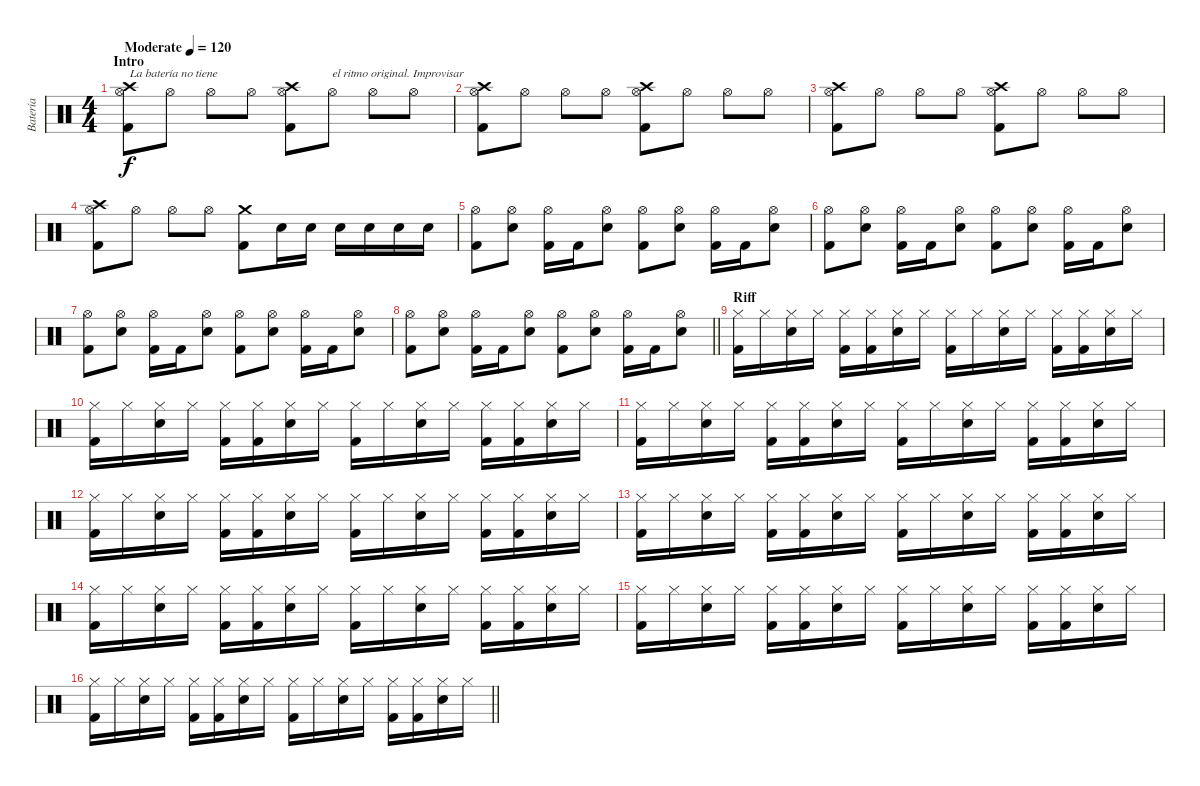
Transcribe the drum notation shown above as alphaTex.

\track ("Batería" "Batería") {instrument percussion}
\staff {score}
\articulation defaults
\ts (4 4)
\section ("" "Intro")
\tempo (120 "Moderate")
\clef neutral
\ks c
("Hi-Hat (open)" "Kick (hit) 2" "Crash high (hit)").8{txt "La batería no tiene" dy f} "Hi-Hat (open)".8 "Hi-Hat (open)".8 "Hi-Hat (open)".8 ("Hi-Hat (open)" "Kick (hit) 2" "Crash high (hit)").8 "Hi-Hat (open)".8{txt "el ritmo original. Improvisar"} "Hi-Hat (open)".8 "Hi-Hat (open)".8 |
("Hi-Hat (open)" "Kick (hit) 2" "Crash high (hit)").8 "Hi-Hat (open)".8 "Hi-Hat (open)".8 "Hi-Hat (open)".8 ("Hi-Hat (open)" "Kick (hit) 2" "Crash high (hit)").8 "Hi-Hat (open)".8 "Hi-Hat (open)".8 "Hi-Hat (open)".8 |
("Hi-Hat (open)" "Kick (hit) 2" "Crash high (hit)").8 "Hi-Hat (open)".8 "Hi-Hat (open)".8 "Hi-Hat (open)".8 ("Hi-Hat (open)" "Kick (hit) 2" "Crash high (hit)").8 "Hi-Hat (open)".8 "Hi-Hat (open)".8 "Hi-Hat (open)".8 |
("Hi-Hat (open)" "Kick (hit) 2" "Crash high (hit)").8 "Hi-Hat (open)".8 "Hi-Hat (open)".8 "Hi-Hat (open)".8 ("Kick (hit) 2" "Crash medium (hit)").8 "Snare (hit) 2".16 "Snare (hit) 2".16 "Snare (hit) 2".16 "Snare (hit) 2".16 "Snare (hit) 2".16 "Snare (hit) 2".16 |
("Hi-Hat (open)" "Kick (hit) 2").8 ("Hi-Hat (open)" "Snare (hit) 2").8 ("Hi-Hat (open)" "Kick (hit) 2").16 "Kick (hit) 2".16 ("Hi-Hat (open)" "Snare (hit) 2").8 ("Hi-Hat (open)" "Kick (hit) 2").8 ("Hi-Hat (open)" "Snare (hit) 2").8 ("Hi-Hat (open)" "Kick (hit) 2").16 "Kick (hit) 2".16 ("Hi-Hat (open)" "Snare (hit) 2").8 |
("Hi-Hat (open)" "Kick (hit) 2").8 ("Hi-Hat (open)" "Snare (hit) 2").8 ("Hi-Hat (open)" "Kick (hit) 2").16 "Kick (hit) 2".16 ("Hi-Hat (open)" "Snare (hit) 2").8 ("Hi-Hat (open)" "Kick (hit) 2").8 ("Hi-Hat (open)" "Snare (hit) 2").8 ("Hi-Hat (open)" "Kick (hit) 2").16 "Kick (hit) 2".16 ("Hi-Hat (open)" "Snare (hit) 2").8 |
("Hi-Hat (open)" "Kick (hit) 2").8 ("Hi-Hat (open)" "Snare (hit) 2").8 ("Hi-Hat (open)" "Kick (hit) 2").16 "Kick (hit) 2".16 ("Hi-Hat (open)" "Snare (hit) 2").8 ("Hi-Hat (open)" "Kick (hit) 2").8 ("Hi-Hat (open)" "Snare (hit) 2").8 ("Hi-Hat (open)" "Kick (hit) 2").16 "Kick (hit) 2".16 ("Hi-Hat (open)" "Snare (hit) 2").8 |
\barLineRight lightlight
("Hi-Hat (open)" "Kick (hit) 2").8 ("Hi-Hat (open)" "Snare (hit) 2").8 ("Hi-Hat (open)" "Kick (hit) 2").16 "Kick (hit) 2".16 ("Hi-Hat (open)" "Snare (hit) 2").8 ("Hi-Hat (open)" "Kick (hit) 2").8 ("Hi-Hat (open)" "Snare (hit) 2").8 ("Hi-Hat (open)" "Kick (hit) 2").16 "Kick (hit) 2".16 ("Hi-Hat (open)" "Snare (hit) 2").8 |
\section ("" "Riff")
("Hi-Hat (closed)" "Kick (hit) 2").16 "Hi-Hat (closed)".16 ("Hi-Hat (closed)" "Snare (hit) 2").16 "Hi-Hat (closed)".16 ("Hi-Hat (closed)" "Kick (hit) 2").16 ("Hi-Hat (closed)" "Kick (hit) 2").16 ("Hi-Hat (closed)" "Snare (hit) 2").16 "Hi-Hat (closed)".16 ("Hi-Hat (closed)" "Kick (hit) 2").16 "Hi-Hat (closed)".16 ("Hi-Hat (closed)" "Snare (hit) 2").16 "Hi-Hat (closed)".16 ("Hi-Hat (closed)" "Kick (hit) 2").16 ("Hi-Hat (closed)" "Kick (hit) 2").16 ("Hi-Hat (closed)" "Snare (hit) 2").16 "Hi-Hat (closed)".16 |
("Hi-Hat (closed)" "Kick (hit) 2").16 "Hi-Hat (closed)".16 ("Hi-Hat (closed)" "Snare (hit) 2").16 "Hi-Hat (closed)".16 ("Hi-Hat (closed)" "Kick (hit) 2").16 ("Hi-Hat (closed)" "Kick (hit) 2").16 ("Hi-Hat (closed)" "Snare (hit) 2").16 "Hi-Hat (closed)".16 ("Hi-Hat (closed)" "Kick (hit) 2").16 "Hi-Hat (closed)".16 ("Hi-Hat (closed)" "Snare (hit) 2").16 "Hi-Hat (closed)".16 ("Hi-Hat (closed)" "Kick (hit) 2").16 ("Hi-Hat (closed)" "Kick (hit) 2").16 ("Hi-Hat (closed)" "Snare (hit) 2").16 "Hi-Hat (closed)".16 |
("Hi-Hat (closed)" "Kick (hit) 2").16 "Hi-Hat (closed)".16 ("Hi-Hat (closed)" "Snare (hit) 2").16 "Hi-Hat (closed)".16 ("Hi-Hat (closed)" "Kick (hit) 2").16 ("Hi-Hat (closed)" "Kick (hit) 2").16 ("Hi-Hat (closed)" "Snare (hit) 2").16 "Hi-Hat (closed)".16 ("Hi-Hat (closed)" "Kick (hit) 2").16 "Hi-Hat (closed)".16 ("Hi-Hat (closed)" "Snare (hit) 2").16 "Hi-Hat (closed)".16 ("Hi-Hat (closed)" "Kick (hit) 2").16 ("Hi-Hat (closed)" "Kick (hit) 2").16 ("Hi-Hat (closed)" "Snare (hit) 2").16 "Hi-Hat (closed)".16 |
("Hi-Hat (closed)" "Kick (hit) 2").16 "Hi-Hat (closed)".16 ("Hi-Hat (closed)" "Snare (hit) 2").16 "Hi-Hat (closed)".16 ("Hi-Hat (closed)" "Kick (hit) 2").16 ("Hi-Hat (closed)" "Kick (hit) 2").16 ("Hi-Hat (closed)" "Snare (hit) 2").16 "Hi-Hat (closed)".16 ("Hi-Hat (closed)" "Kick (hit) 2").16 "Hi-Hat (closed)".16 ("Hi-Hat (closed)" "Snare (hit) 2").16 "Hi-Hat (closed)".16 ("Hi-Hat (closed)" "Kick (hit) 2").16 ("Hi-Hat (closed)" "Kick (hit) 2").16 ("Hi-Hat (closed)" "Snare (hit) 2").16 "Hi-Hat (closed)".16 |
("Hi-Hat (closed)" "Kick (hit) 2").16 "Hi-Hat (closed)".16 ("Hi-Hat (closed)" "Snare (hit) 2").16 "Hi-Hat (closed)".16 ("Hi-Hat (closed)" "Kick (hit) 2").16 ("Hi-Hat (closed)" "Kick (hit) 2").16 ("Hi-Hat (closed)" "Snare (hit) 2").16 "Hi-Hat (closed)".16 ("Hi-Hat (closed)" "Kick (hit) 2").16 "Hi-Hat (closed)".16 ("Hi-Hat (closed)" "Snare (hit) 2").16 "Hi-Hat (closed)".16 ("Hi-Hat (closed)" "Kick (hit) 2").16 ("Hi-Hat (closed)" "Kick (hit) 2").16 ("Hi-Hat (closed)" "Snare (hit) 2").16 "Hi-Hat (closed)".16 |
("Hi-Hat (closed)" "Kick (hit) 2").16 "Hi-Hat (closed)".16 ("Hi-Hat (closed)" "Snare (hit) 2").16 "Hi-Hat (closed)".16 ("Hi-Hat (closed)" "Kick (hit) 2").16 ("Hi-Hat (closed)" "Kick (hit) 2").16 ("Hi-Hat (closed)" "Snare (hit) 2").16 "Hi-Hat (closed)".16 ("Hi-Hat (closed)" "Kick (hit) 2").16 "Hi-Hat (closed)".16 ("Hi-Hat (closed)" "Snare (hit) 2").16 "Hi-Hat (closed)".16 ("Hi-Hat (closed)" "Kick (hit) 2").16 ("Hi-Hat (closed)" "Kick (hit) 2").16 ("Hi-Hat (closed)" "Snare (hit) 2").16 "Hi-Hat (closed)".16 |
("Hi-Hat (closed)" "Kick (hit) 2").16 "Hi-Hat (closed)".16 ("Hi-Hat (closed)" "Snare (hit) 2").16 "Hi-Hat (closed)".16 ("Hi-Hat (closed)" "Kick (hit) 2").16 ("Hi-Hat (closed)" "Kick (hit) 2").16 ("Hi-Hat (closed)" "Snare (hit) 2").16 "Hi-Hat (closed)".16 ("Hi-Hat (closed)" "Kick (hit) 2").16 "Hi-Hat (closed)".16 ("Hi-Hat (closed)" "Snare (hit) 2").16 "Hi-Hat (closed)".16 ("Hi-Hat (closed)" "Kick (hit) 2").16 ("Hi-Hat (closed)" "Kick (hit) 2").16 ("Hi-Hat (closed)" "Snare (hit) 2").16 "Hi-Hat (closed)".16 |
\barLineRight lightlight
("Hi-Hat (closed)" "Kick (hit) 2").16 "Hi-Hat (closed)".16 ("Hi-Hat (closed)" "Snare (hit) 2").16 "Hi-Hat (closed)".16 ("Hi-Hat (closed)" "Kick (hit) 2").16 ("Hi-Hat (closed)" "Kick (hit) 2").16 ("Hi-Hat (closed)" "Snare (hit) 2").16 "Hi-Hat (closed)".16 ("Hi-Hat (closed)" "Kick (hit) 2").16 "Hi-Hat (closed)".16 ("Hi-Hat (closed)" "Snare (hit) 2").16 "Hi-Hat (closed)".16 ("Hi-Hat (closed)" "Kick (hit) 2").16 ("Hi-Hat (closed)" "Kick (hit) 2").16 ("Hi-Hat (closed)" "Snare (hit) 2").16 "Hi-Hat (closed)".16
